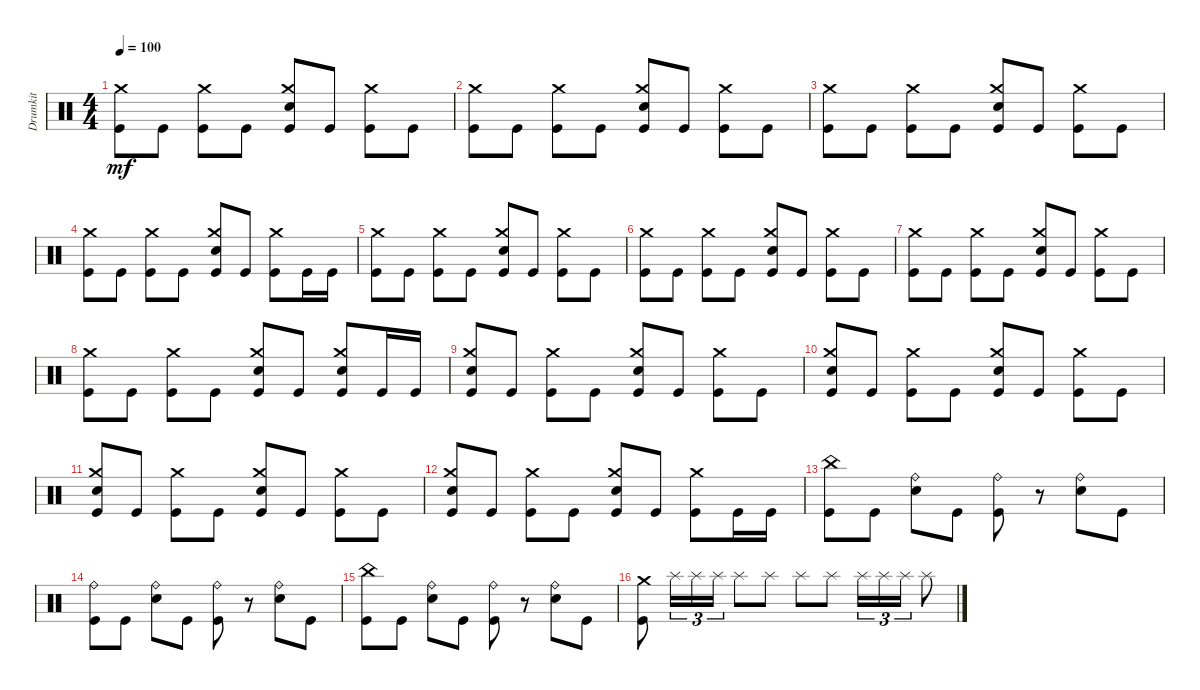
\track ("Drumkit" "Drumkit") {instrument percussion}
\staff {score}
\articulation defaults
\ts (4 4)
\tempo 100
\clef neutral
\ks c
("Kick (hit)" "Crash medium (hit)").8{dy mf} "Kick (hit)".8 ("Kick (hit)" "Crash medium (hit)").8 "Kick (hit)".8 ("Kick (hit)" "Snare (hit) 2" "Crash medium (hit)").8 "Kick (hit)".8 ("Kick (hit)" "Crash medium (hit)").8 "Kick (hit)".8 |
("Kick (hit)" "Crash medium (hit)").8 "Kick (hit)".8 ("Kick (hit)" "Crash medium (hit)").8 "Kick (hit)".8 ("Kick (hit)" "Snare (hit) 2" "Crash medium (hit)").8 "Kick (hit)".8 ("Kick (hit)" "Crash medium (hit)").8 "Kick (hit)".8 |
("Kick (hit)" "Crash medium (hit)").8 "Kick (hit)".8 ("Kick (hit)" "Crash medium (hit)").8 "Kick (hit)".8 ("Kick (hit)" "Snare (hit) 2" "Crash medium (hit)").8 "Kick (hit)".8 ("Kick (hit)" "Crash medium (hit)").8 "Kick (hit)".8 |
("Kick (hit)" "Crash medium (hit)").8 "Kick (hit)".8 ("Kick (hit)" "Crash medium (hit)").8 "Kick (hit)".8 ("Kick (hit)" "Snare (hit) 2" "Crash medium (hit)").8 "Kick (hit)".8 ("Kick (hit)" "Crash medium (hit)").8 "Kick (hit)".16 "Kick (hit)".16 |
("Kick (hit)" "Crash medium (hit)").8 "Kick (hit)".8 ("Kick (hit)" "Crash medium (hit)").8 "Kick (hit)".8 ("Kick (hit)" "Snare (hit) 2" "Crash medium (hit)").8 "Kick (hit)".8 ("Kick (hit)" "Crash medium (hit)").8 "Kick (hit)".8 |
("Kick (hit)" "Crash medium (hit)").8 "Kick (hit)".8 ("Kick (hit)" "Crash medium (hit)").8 "Kick (hit)".8 ("Kick (hit)" "Snare (hit) 2" "Crash medium (hit)").8 "Kick (hit)".8 ("Kick (hit)" "Crash medium (hit)").8 "Kick (hit)".8 |
("Kick (hit)" "Crash medium (hit)").8 "Kick (hit)".8 ("Kick (hit)" "Crash medium (hit)").8 "Kick (hit)".8 ("Kick (hit)" "Snare (hit) 2" "Crash medium (hit)").8 "Kick (hit)".8 ("Kick (hit)" "Crash medium (hit)").8 "Kick (hit)".8 |
("Kick (hit)" "Crash medium (hit)").8 "Kick (hit)".8 ("Kick (hit)" "Crash medium (hit)").8 "Kick (hit)".8 ("Kick (hit)" "Snare (hit) 2" "Crash medium (hit)").8 "Kick (hit)".8 ("Kick (hit)" "Crash medium (hit)" "Snare (hit) 2").8 "Kick (hit)".16 "Kick (hit)".16 |
("Kick (hit)" "Crash medium (hit)" "Snare (hit) 2").8 "Kick (hit)".8 ("Kick (hit)" "Crash medium (hit)").8 "Kick (hit)".8 ("Kick (hit)" "Snare (hit) 2" "Crash medium (hit)").8 "Kick (hit)".8 ("Kick (hit)" "Crash medium (hit)").8 "Kick (hit)".8 |
("Kick (hit)" "Crash medium (hit)" "Snare (hit) 2").8 "Kick (hit)".8 ("Kick (hit)" "Crash medium (hit)").8 "Kick (hit)".8 ("Kick (hit)" "Snare (hit) 2" "Crash medium (hit)").8 "Kick (hit)".8 ("Kick (hit)" "Crash medium (hit)").8 "Kick (hit)".8 |
("Kick (hit)" "Crash medium (hit)" "Snare (hit) 2").8 "Kick (hit)".8 ("Kick (hit)" "Crash medium (hit)").8 "Kick (hit)".8 ("Kick (hit)" "Snare (hit) 2" "Crash medium (hit)").8 "Kick (hit)".8 ("Kick (hit)" "Crash medium (hit)").8 "Kick (hit)".8 |
("Kick (hit)" "Crash medium (hit)" "Snare (hit) 2").8 "Kick (hit)".8 ("Kick (hit)" "Crash medium (hit)").8 "Kick (hit)".8 ("Kick (hit)" "Snare (hit) 2" "Crash medium (hit)").8 "Kick (hit)".8 ("Kick (hit)" "Crash medium (hit)").8 "Kick (hit)".16 "Kick (hit)".16 |
("Kick (hit)" "China (hit)").8 "Kick (hit)".8 ("Snare (hit) 2" "Ride (bell)").8 "Kick (hit)".8 ("Kick (hit)" "Ride (bell)").8 r.8 ("Snare (hit) 2" "Ride (bell)").8 "Kick (hit)".8 |
("Kick (hit)" "Ride (bell)").8 "Kick (hit)".8 ("Snare (hit) 2" "Ride (bell)").8 "Kick (hit)".8 ("Kick (hit)" "Ride (bell)").8 r.8 ("Snare (hit) 2" "Ride (bell)").8 "Kick (hit)".8 |
("Kick (hit)" "China (hit)").8 "Kick (hit)".8 ("Snare (hit) 2" "Ride (bell)").8 "Kick (hit)".8 ("Kick (hit)" "Ride (bell)").8 r.8 ("Snare (hit) 2" "Ride (bell)").8 "Kick (hit)".8 |
("Crash medium (hit)" "Kick (hit)").8 "Splash (hit)".16{tu (3 2)} "Splash (hit)".16{tu (3 2)} "Splash (hit)".16{tu (3 2)} "Splash (hit)".8 "Splash (hit)".8 "Splash (hit)".8 "Splash (hit)".8 "Splash (hit)".16{tu (3 2)} "Splash (hit)".16{tu (3 2)} "Splash (hit)".16{tu (3 2)} "Splash (hit)".8
